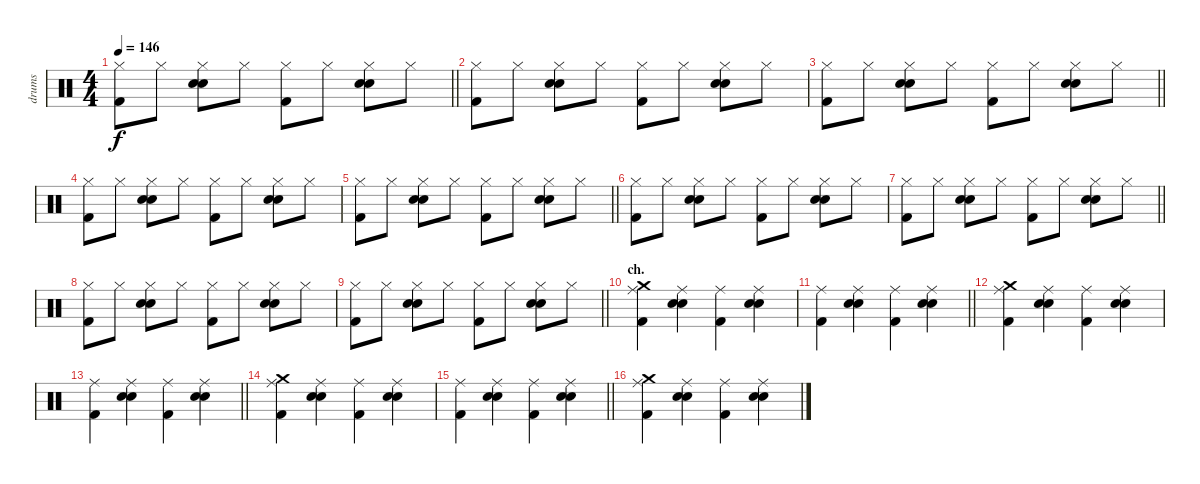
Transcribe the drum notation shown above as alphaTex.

\track ("drums " "drums ") {instrument percussion}
\staff {score}
\articulation defaults
\ts (4 4)
\tempo 146
\clef neutral
\barLineRight lightlight
\ks c
("Kick (hit) 2" "Hi-Hat (closed)").8{dy f} "Hi-Hat (closed)".8 ("Electric Snare (hit)" "Snare (hit) 2" "Hi-Hat (closed)").8 "Hi-Hat (closed)".8 ("Kick (hit) 2" "Hi-Hat (closed)").8 "Hi-Hat (closed)".8 ("Electric Snare (hit)" "Snare (hit) 2" "Hi-Hat (closed)").8 "Hi-Hat (closed)".8 |
("Kick (hit) 2" "Hi-Hat (closed)").8 "Hi-Hat (closed)".8 ("Electric Snare (hit)" "Snare (hit) 2" "Hi-Hat (closed)").8 "Hi-Hat (closed)".8 ("Kick (hit) 2" "Hi-Hat (closed)").8 "Hi-Hat (closed)".8 ("Electric Snare (hit)" "Snare (hit) 2" "Hi-Hat (closed)").8 "Hi-Hat (closed)".8 |
\barLineRight lightlight
("Kick (hit) 2" "Hi-Hat (closed)").8 "Hi-Hat (closed)".8 ("Electric Snare (hit)" "Snare (hit) 2" "Hi-Hat (closed)").8 "Hi-Hat (closed)".8 ("Kick (hit) 2" "Hi-Hat (closed)").8 "Hi-Hat (closed)".8 ("Electric Snare (hit)" "Snare (hit) 2" "Hi-Hat (closed)").8 "Hi-Hat (closed)".8 |
("Kick (hit) 2" "Hi-Hat (closed)").8 "Hi-Hat (closed)".8 ("Electric Snare (hit)" "Snare (hit) 2" "Hi-Hat (closed)").8 "Hi-Hat (closed)".8 ("Kick (hit) 2" "Hi-Hat (closed)").8 "Hi-Hat (closed)".8 ("Electric Snare (hit)" "Snare (hit) 2" "Hi-Hat (closed)").8 "Hi-Hat (closed)".8 |
\barLineRight lightlight
("Kick (hit) 2" "Hi-Hat (closed)").8 "Hi-Hat (closed)".8 ("Electric Snare (hit)" "Snare (hit) 2" "Hi-Hat (closed)").8 "Hi-Hat (closed)".8 ("Kick (hit) 2" "Hi-Hat (closed)").8 "Hi-Hat (closed)".8 ("Electric Snare (hit)" "Snare (hit) 2" "Hi-Hat (closed)").8 "Hi-Hat (closed)".8 |
("Kick (hit) 2" "Hi-Hat (closed)").8 "Hi-Hat (closed)".8 ("Electric Snare (hit)" "Snare (hit) 2" "Hi-Hat (closed)").8 "Hi-Hat (closed)".8 ("Kick (hit) 2" "Hi-Hat (closed)").8 "Hi-Hat (closed)".8 ("Electric Snare (hit)" "Snare (hit) 2" "Hi-Hat (closed)").8 "Hi-Hat (closed)".8 |
\barLineRight lightlight
("Kick (hit) 2" "Hi-Hat (closed)").8 "Hi-Hat (closed)".8 ("Electric Snare (hit)" "Snare (hit) 2" "Hi-Hat (closed)").8 "Hi-Hat (closed)".8 ("Kick (hit) 2" "Hi-Hat (closed)").8 "Hi-Hat (closed)".8 ("Electric Snare (hit)" "Snare (hit) 2" "Hi-Hat (closed)").8 "Hi-Hat (closed)".8 |
("Kick (hit) 2" "Hi-Hat (closed)").8 "Hi-Hat (closed)".8 ("Electric Snare (hit)" "Snare (hit) 2" "Hi-Hat (closed)").8 "Hi-Hat (closed)".8 ("Kick (hit) 2" "Hi-Hat (closed)").8 "Hi-Hat (closed)".8 ("Electric Snare (hit)" "Snare (hit) 2" "Hi-Hat (closed)").8 "Hi-Hat (closed)".8 |
\barLineRight lightlight
("Kick (hit) 2" "Hi-Hat (closed)").8 "Hi-Hat (closed)".8 ("Electric Snare (hit)" "Snare (hit) 2" "Hi-Hat (closed)").8 "Hi-Hat (closed)".8 ("Kick (hit) 2" "Hi-Hat (closed)").8 "Hi-Hat (closed)".8 ("Electric Snare (hit)" "Snare (hit) 2" "Hi-Hat (closed)").8 "Hi-Hat (closed)".8 |
\section ("" "ch.")
("Crash medium (hit)" "Ride (middle)" "Kick (hit) 2").4 ("Ride (middle)" "Electric Snare (hit)" "Snare (hit) 2").4 ("Ride (middle)" "Kick (hit) 2").4 ("Ride (middle)" "Electric Snare (hit)" "Snare (hit) 2").4 |
\barLineRight lightlight
("Ride (middle)" "Kick (hit) 2").4 ("Ride (middle)" "Electric Snare (hit)" "Snare (hit) 2").4 ("Ride (middle)" "Kick (hit) 2").4 ("Ride (middle)" "Electric Snare (hit)" "Snare (hit) 2").4 |
("Crash medium (hit)" "Ride (middle)" "Kick (hit) 2").4 ("Ride (middle)" "Electric Snare (hit)" "Snare (hit) 2").4 ("Ride (middle)" "Kick (hit) 2").4 ("Ride (middle)" "Electric Snare (hit)" "Snare (hit) 2").4 |
\barLineRight lightlight
("Ride (middle)" "Kick (hit) 2").4 ("Ride (middle)" "Electric Snare (hit)" "Snare (hit) 2").4 ("Ride (middle)" "Kick (hit) 2").4 ("Ride (middle)" "Electric Snare (hit)" "Snare (hit) 2").4 |
("Crash medium (hit)" "Ride (middle)" "Kick (hit) 2").4 ("Ride (middle)" "Electric Snare (hit)" "Snare (hit) 2").4 ("Ride (middle)" "Kick (hit) 2").4 ("Ride (middle)" "Electric Snare (hit)" "Snare (hit) 2").4 |
\barLineRight lightlight
("Ride (middle)" "Kick (hit) 2").4 ("Ride (middle)" "Electric Snare (hit)" "Snare (hit) 2").4 ("Ride (middle)" "Kick (hit) 2").4 ("Ride (middle)" "Electric Snare (hit)" "Snare (hit) 2").4 |
("Crash medium (hit)" "Ride (middle)" "Kick (hit) 2").4 ("Ride (middle)" "Electric Snare (hit)" "Snare (hit) 2").4 ("Ride (middle)" "Kick (hit) 2").4 ("Ride (middle)" "Electric Snare (hit)" "Snare (hit) 2").4
